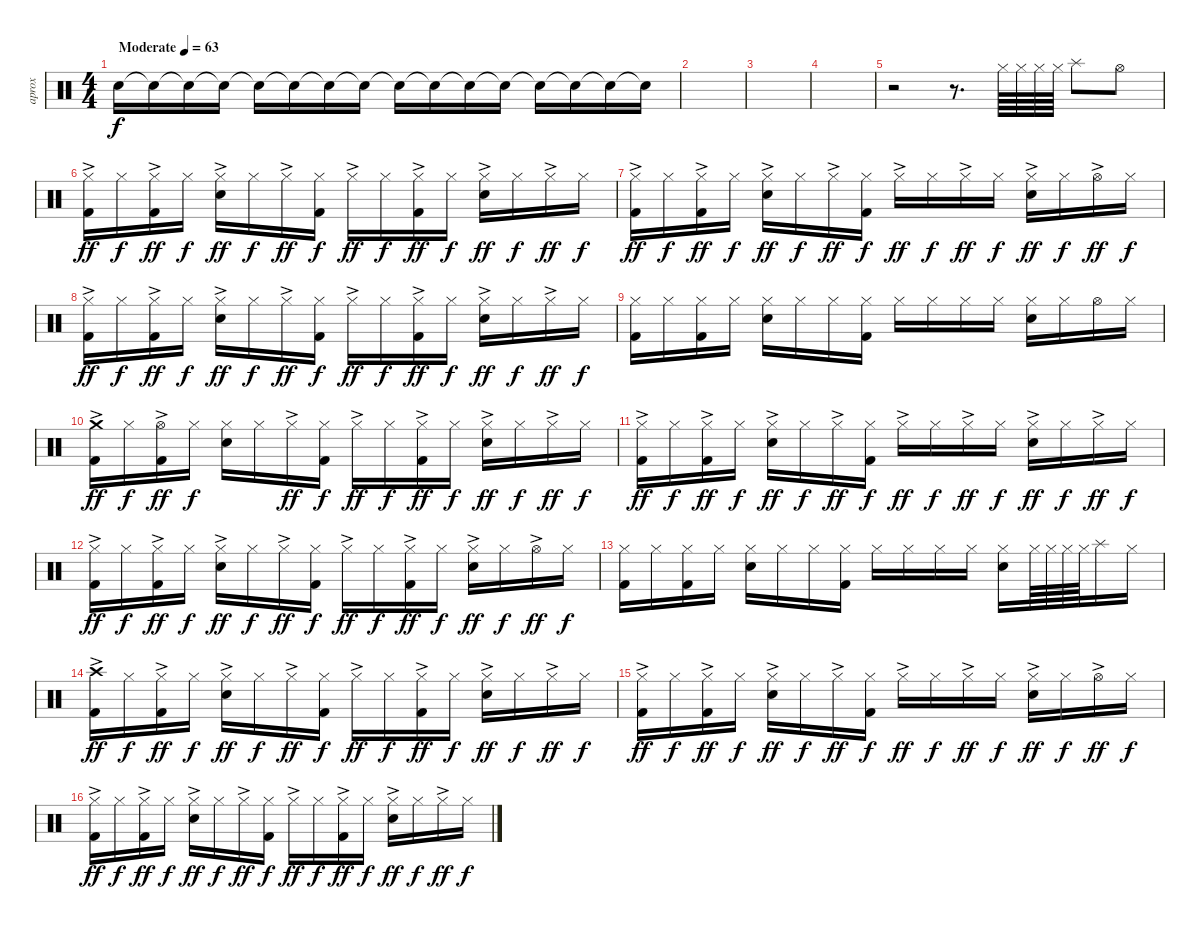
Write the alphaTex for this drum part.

\track ("aprox" "aprox") {instrument percussion}
\staff {score}
\articulation defaults
\ts (4 4)
\tempo (63 "Moderate")
\clef neutral
\ks c "Snare (hit)".16{dy f} "Snare (hit)"{t}.16 "Snare (hit)"{t}.16 "Snare (hit)"{t}.16 "Snare (hit)"{t}.16 "Snare (hit)"{t}.16 "Snare (hit)"{t}.16 "Snare (hit)"{t}.16 "Snare (hit)"{t}.16 "Snare (hit)"{t}.16 "Snare (hit)"{t}.16 "Snare (hit)"{t}.16 "Snare (hit)"{t}.16 "Snare (hit)"{t}.16 "Snare (hit)"{t}.16 "Snare (hit)"{t}.16
|
|
|
|
r.2 r.8{d} "Hi-Hat (closed)".64 "Hi-Hat (closed)".64 "Hi-Hat (closed)".64 "Hi-Hat (closed)".64 "Splash (hit)".8 "Hi-Hat (open)".8 |
("Hi-Hat (closed)"{ac} "Kick (hit) 2").16{dy ff} "Hi-Hat (closed)".16{dy f} ("Hi-Hat (closed)"{ac} "Kick (hit) 2").16{dy ff} "Hi-Hat (closed)".16{dy f} ("Hi-Hat (closed)"{ac} "Electric Snare (hit)").16{dy ff} "Hi-Hat (closed)".16{dy f} "Hi-Hat (closed)"{ac}.16{dy ff} ("Hi-Hat (closed)" "Kick (hit) 2").16{dy f} "Hi-Hat (closed)"{ac}.16{dy ff} "Hi-Hat (closed)".16{dy f} ("Hi-Hat (closed)"{ac} "Kick (hit) 2").16{dy ff} "Hi-Hat (closed)".16{dy f} ("Hi-Hat (closed)"{ac} "Electric Snare (hit)").16{dy ff} "Hi-Hat (closed)".16{dy f} "Hi-Hat (closed)"{ac}.16{dy ff} "Hi-Hat (closed)".16{dy f} |
("Hi-Hat (closed)"{ac} "Kick (hit) 2").16{dy ff} "Hi-Hat (closed)".16{dy f} ("Hi-Hat (closed)"{ac} "Kick (hit) 2").16{dy ff} "Hi-Hat (closed)".16{dy f} ("Hi-Hat (closed)"{ac} "Electric Snare (hit)").16{dy ff} "Hi-Hat (closed)".16{dy f} "Hi-Hat (closed)"{ac}.16{dy ff} ("Hi-Hat (closed)" "Kick (hit) 2").16{dy f} "Hi-Hat (closed)"{ac}.16{dy ff} "Hi-Hat (closed)".16{dy f} "Hi-Hat (closed)"{ac}.16{dy ff} "Hi-Hat (closed)".16{dy f} ("Hi-Hat (closed)"{ac} "Electric Snare (hit)").16{dy ff} "Hi-Hat (closed)".16{dy f} "Hi-Hat (open)"{ac}.16{dy ff} "Hi-Hat (closed)".16{dy f} |
("Hi-Hat (closed)"{ac} "Kick (hit) 2").16{dy ff} "Hi-Hat (closed)".16{dy f} ("Hi-Hat (closed)"{ac} "Kick (hit) 2").16{dy ff} "Hi-Hat (closed)".16{dy f} ("Hi-Hat (closed)"{ac} "Electric Snare (hit)").16{dy ff} "Hi-Hat (closed)".16{dy f} "Hi-Hat (closed)"{ac}.16{dy ff} ("Hi-Hat (closed)" "Kick (hit) 2").16{dy f} "Hi-Hat (closed)"{ac}.16{dy ff} "Hi-Hat (closed)".16{dy f} ("Hi-Hat (closed)"{ac} "Kick (hit) 2").16{dy ff} "Hi-Hat (closed)".16{dy f} ("Hi-Hat (closed)"{ac} "Electric Snare (hit)").16{dy ff} "Hi-Hat (closed)".16{dy f} "Hi-Hat (closed)"{ac}.16{dy ff} "Hi-Hat (closed)".16{dy f} |
("Hi-Hat (closed)" "Kick (hit) 2").16 "Hi-Hat (closed)".16 ("Hi-Hat (closed)" "Kick (hit) 2").16 "Hi-Hat (closed)".16 ("Hi-Hat (closed)" "Electric Snare (hit)").16 "Hi-Hat (closed)".16 "Hi-Hat (closed)".16 ("Hi-Hat (closed)" "Kick (hit) 2").16 "Hi-Hat (closed)".16 "Hi-Hat (closed)".16 "Hi-Hat (closed)".16 "Hi-Hat (closed)".16 ("Hi-Hat (closed)" "Electric Snare (hit)").16 "Hi-Hat (closed)".16 "Hi-Hat (open)".16 "Hi-Hat (closed)".16 |
("Crash medium (hit)"{ac} "Kick (hit) 2").16{dy ff} "Hi-Hat (closed)".16{dy f} ("Hi-Hat (open)"{ac} "Kick (hit) 2").16{dy ff} "Hi-Hat (closed)".16{dy f} ("Hi-Hat (closed)" "Electric Snare (hit)").16 "Hi-Hat (closed)".16 "Hi-Hat (closed)"{ac}.16{dy ff} ("Hi-Hat (closed)" "Kick (hit) 2").16{dy f} "Hi-Hat (closed)"{ac}.16{dy ff} "Hi-Hat (closed)".16{dy f} ("Hi-Hat (closed)"{ac} "Kick (hit) 2").16{dy ff} "Hi-Hat (closed)".16{dy f} ("Hi-Hat (closed)"{ac} "Electric Snare (hit)").16{dy ff} "Hi-Hat (closed)".16{dy f} "Hi-Hat (closed)"{ac}.16{dy ff} "Hi-Hat (closed)".16{dy f} |
("Hi-Hat (closed)"{ac} "Kick (hit) 2").16{dy ff} "Hi-Hat (closed)".16{dy f} ("Hi-Hat (closed)"{ac} "Kick (hit) 2").16{dy ff} "Hi-Hat (closed)".16{dy f} ("Hi-Hat (closed)"{ac} "Electric Snare (hit)").16{dy ff} "Hi-Hat (closed)".16{dy f} "Hi-Hat (closed)"{ac}.16{dy ff} ("Hi-Hat (closed)" "Kick (hit) 2").16{dy f} "Hi-Hat (closed)"{ac}.16{dy ff} "Hi-Hat (closed)".16{dy f} "Hi-Hat (closed)"{ac}.16{dy ff} "Hi-Hat (closed)".16{dy f} ("Hi-Hat (closed)"{ac} "Electric Snare (hit)").16{dy ff} "Hi-Hat (closed)".16{dy f} "Hi-Hat (closed)"{ac}.16{dy ff} "Hi-Hat (closed)".16{dy f} |
("Hi-Hat (closed)"{ac} "Kick (hit) 2").16{dy ff} "Hi-Hat (closed)".16{dy f} ("Hi-Hat (closed)"{ac} "Kick (hit) 2").16{dy ff} "Hi-Hat (closed)".16{dy f} ("Hi-Hat (closed)"{ac} "Electric Snare (hit)").16{dy ff} "Hi-Hat (closed)".16{dy f} "Hi-Hat (closed)"{ac}.16{dy ff} ("Hi-Hat (closed)" "Kick (hit) 2").16{dy f} "Hi-Hat (closed)"{ac}.16{dy ff} "Hi-Hat (closed)".16{dy f} ("Hi-Hat (closed)"{ac} "Kick (hit) 2").16{dy ff} "Hi-Hat (closed)".16{dy f} ("Hi-Hat (closed)"{ac} "Electric Snare (hit)").16{dy ff} "Hi-Hat (closed)".16{dy f} "Hi-Hat (open)"{ac}.16{dy ff} "Hi-Hat (closed)".16{dy f} |
("Hi-Hat (closed)" "Kick (hit) 2").16 "Hi-Hat (closed)".16 ("Hi-Hat (closed)" "Kick (hit) 2").16 "Hi-Hat (closed)".16 ("Hi-Hat (closed)" "Electric Snare (hit)").16 "Hi-Hat (closed)".16 "Hi-Hat (closed)".16 ("Hi-Hat (closed)" "Kick (hit) 2").16 "Hi-Hat (closed)".16 "Hi-Hat (closed)".16 "Hi-Hat (closed)".16 "Hi-Hat (closed)".16 ("Hi-Hat (closed)" "Electric Snare (hit)").16 "Hi-Hat (closed)".64 "Hi-Hat (closed)".64 "Hi-Hat (closed)".64 "Hi-Hat (closed)".64 "Splash (hit)".16 "Hi-Hat (closed)".16 |
("Crash high (hit)"{ac} "Kick (hit) 2").16{dy ff} "Hi-Hat (closed)".16{dy f} ("Hi-Hat (closed)"{ac} "Kick (hit) 2").16{dy ff} "Hi-Hat (closed)".16{dy f} ("Hi-Hat (closed)"{ac} "Electric Snare (hit)").16{dy ff} "Hi-Hat (closed)".16{dy f} "Hi-Hat (closed)"{ac}.16{dy ff} ("Hi-Hat (closed)" "Kick (hit) 2").16{dy f} "Hi-Hat (closed)"{ac}.16{dy ff} "Hi-Hat (closed)".16{dy f} ("Hi-Hat (closed)"{ac} "Kick (hit) 2").16{dy ff} "Hi-Hat (closed)".16{dy f} ("Hi-Hat (closed)"{ac} "Electric Snare (hit)").16{dy ff} "Hi-Hat (closed)".16{dy f} "Hi-Hat (closed)"{ac}.16{dy ff} "Hi-Hat (closed)".16{dy f} |
("Hi-Hat (closed)"{ac} "Kick (hit) 2").16{dy ff} "Hi-Hat (closed)".16{dy f} ("Hi-Hat (closed)"{ac} "Kick (hit) 2").16{dy ff} "Hi-Hat (closed)".16{dy f} ("Hi-Hat (closed)"{ac} "Electric Snare (hit)").16{dy ff} "Hi-Hat (closed)".16{dy f} "Hi-Hat (closed)"{ac}.16{dy ff} ("Hi-Hat (closed)" "Kick (hit) 2").16{dy f} "Hi-Hat (closed)"{ac}.16{dy ff} "Hi-Hat (closed)".16{dy f} "Hi-Hat (closed)"{ac}.16{dy ff} "Hi-Hat (closed)".16{dy f} ("Hi-Hat (closed)"{ac} "Electric Snare (hit)").16{dy ff} "Hi-Hat (closed)".16{dy f} "Hi-Hat (open)"{ac}.16{dy ff} "Hi-Hat (closed)".16{dy f} |
("Hi-Hat (closed)"{ac} "Kick (hit) 2").16{dy ff} "Hi-Hat (closed)".16{dy f} ("Hi-Hat (closed)"{ac} "Kick (hit) 2").16{dy ff} "Hi-Hat (closed)".16{dy f} ("Hi-Hat (closed)"{ac} "Electric Snare (hit)").16{dy ff} "Hi-Hat (closed)".16{dy f} "Hi-Hat (closed)"{ac}.16{dy ff} ("Hi-Hat (closed)" "Kick (hit) 2").16{dy f} "Hi-Hat (closed)"{ac}.16{dy ff} "Hi-Hat (closed)".16{dy f} ("Hi-Hat (closed)"{ac} "Kick (hit) 2").16{dy ff} "Hi-Hat (closed)".16{dy f} ("Hi-Hat (closed)"{ac} "Electric Snare (hit)").16{dy ff} "Hi-Hat (closed)".16{dy f} "Hi-Hat (closed)"{ac}.16{dy ff} "Hi-Hat (closed)".16{dy f}
